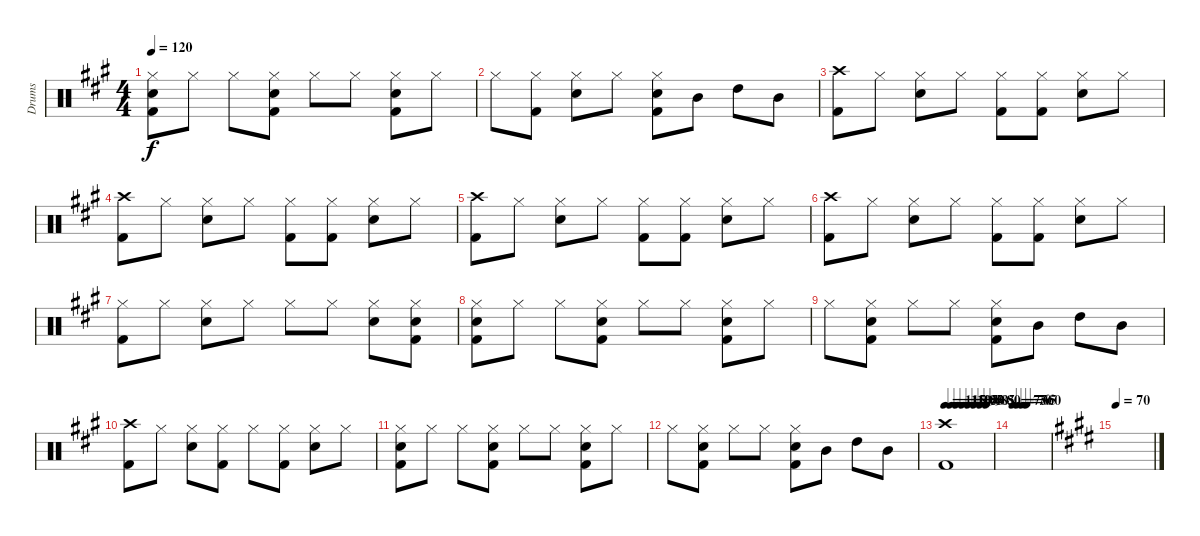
\track ("Drums" "Drums") {instrument percussion}
\staff {score}
\articulation defaults
\ts (4 4)
\tempo 120
\clef neutral
\ks a
("Hi-Hat (closed)" "Snare (hit) 2" "Kick (hit) 2").8{dy f} "Hi-Hat (closed)".8 "Hi-Hat (closed)".8 ("Hi-Hat (closed)" "Snare (hit) 2" "Kick (hit) 2").8 "Hi-Hat (closed)".8 "Hi-Hat (closed)".8 ("Hi-Hat (closed)" "Snare (hit) 2" "Kick (hit) 2").8 "Hi-Hat (closed)".8 |
"Hi-Hat (closed)".8 ("Hi-Hat (closed)" "Kick (hit) 2").8 ("Hi-Hat (closed)" "Snare (hit) 2").8 "Hi-Hat (closed)".8 ("Hi-Hat (closed)" "Snare (hit) 2" "Kick (hit) 2").8 "Mid Tom (hit)".8 "High Tom (hit)".8 "Mid Tom (hit)".8 |
("Crash high (hit)" "Kick (hit) 2").8 "Hi-Hat (closed)".8 ("Hi-Hat (closed)" "Snare (hit) 2").8 "Hi-Hat (closed)".8 ("Hi-Hat (closed)" "Kick (hit) 2").8 ("Hi-Hat (closed)" "Kick (hit) 2").8 ("Hi-Hat (closed)" "Snare (hit) 2").8 "Hi-Hat (closed)".8 |
("Crash high (hit)" "Kick (hit) 2").8 "Hi-Hat (closed)".8 ("Hi-Hat (closed)" "Snare (hit) 2").8 "Hi-Hat (closed)".8 ("Hi-Hat (closed)" "Kick (hit) 2").8 ("Hi-Hat (closed)" "Kick (hit) 2").8 ("Hi-Hat (closed)" "Snare (hit) 2").8 "Hi-Hat (closed)".8 |
("Crash high (hit)" "Kick (hit) 2").8 "Hi-Hat (closed)".8 ("Hi-Hat (closed)" "Snare (hit) 2").8 "Hi-Hat (closed)".8 ("Hi-Hat (closed)" "Kick (hit) 2").8 ("Hi-Hat (closed)" "Kick (hit) 2").8 ("Hi-Hat (closed)" "Snare (hit) 2").8 "Hi-Hat (closed)".8 |
("Crash high (hit)" "Kick (hit) 2").8 "Hi-Hat (closed)".8 ("Hi-Hat (closed)" "Snare (hit) 2").8 "Hi-Hat (closed)".8 ("Hi-Hat (closed)" "Kick (hit) 2").8 ("Hi-Hat (closed)" "Kick (hit) 2").8 ("Hi-Hat (closed)" "Snare (hit) 2").8 "Hi-Hat (closed)".8 |
("Hi-Hat (closed)" "Kick (hit) 2").8 "Hi-Hat (closed)".8 ("Hi-Hat (closed)" "Snare (hit) 2").8 "Hi-Hat (closed)".8 "Hi-Hat (closed)".8 "Hi-Hat (closed)".8 ("Hi-Hat (closed)" "Snare (hit) 2").8 ("Hi-Hat (closed)" "Snare (hit) 2" "Kick (hit) 2").8 |
("Hi-Hat (closed)" "Snare (hit) 2" "Kick (hit) 2").8 "Hi-Hat (closed)".8 "Hi-Hat (closed)".8 ("Hi-Hat (closed)" "Snare (hit) 2" "Kick (hit) 2").8 "Hi-Hat (closed)".8 "Hi-Hat (closed)".8 ("Hi-Hat (closed)" "Snare (hit) 2" "Kick (hit) 2").8 "Hi-Hat (closed)".8 |
"Hi-Hat (closed)".8 ("Hi-Hat (closed)" "Snare (hit) 2" "Kick (hit) 2").8 "Hi-Hat (closed)".8 "Hi-Hat (closed)".8 ("Hi-Hat (closed)" "Snare (hit) 2" "Kick (hit) 2").8 "Mid Tom (hit)".8 "High Tom (hit)".8 "Mid Tom (hit)".8 |
("Crash high (hit)" "Kick (hit) 2").8 "Hi-Hat (closed)".8 ("Hi-Hat (closed)" "Snare (hit) 2").8 ("Hi-Hat (closed)" "Kick (hit) 2").8 "Hi-Hat (closed)".8 ("Hi-Hat (closed)" "Kick (hit) 2").8 ("Hi-Hat (closed)" "Snare (hit) 2").8 "Hi-Hat (closed)".8 |
("Hi-Hat (closed)" "Snare (hit) 2" "Kick (hit) 2").8 "Hi-Hat (closed)".8 "Hi-Hat (closed)".8 ("Hi-Hat (closed)" "Snare (hit) 2" "Kick (hit) 2").8 "Hi-Hat (closed)".8 "Hi-Hat (closed)".8 ("Hi-Hat (closed)" "Snare (hit) 2" "Kick (hit) 2").8 "Hi-Hat (closed)".8 |
"Hi-Hat (closed)".8 ("Hi-Hat (closed)" "Snare (hit) 2" "Kick (hit) 2").8 "Hi-Hat (closed)".8 "Hi-Hat (closed)".8 ("Hi-Hat (closed)" "Snare (hit) 2" "Kick (hit) 2").8 "Mid Tom (hit)".8 "High Tom (hit)".8 "Mid Tom (hit)".8 |
\tempo 115
\tempo (110 0.125)
\tempo (105 0.25)
\tempo (100 0.375)
\tempo (95 0.5)
\tempo (90 0.625)
\tempo (85 0.75)
\tempo (80 0.875)
("Crash high (hit)" "Kick (hit) 2").1 |
\tempo 75
\tempo (70 0.125)
\tempo (65 0.25)
\tempo (60 0.375)
|
\tempo 70
\ks e
